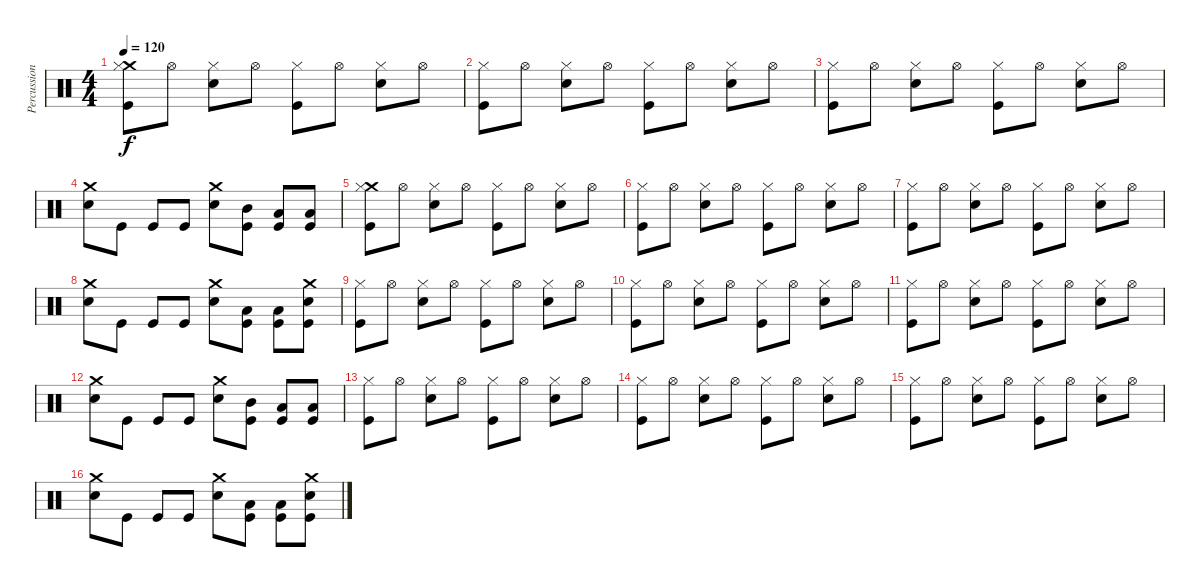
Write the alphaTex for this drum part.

\track ("Percussion" "Percussion") {instrument percussion}
\staff {score}
\articulation defaults
\ts (4 4)
\tempo 120
\clef neutral
\ks c
("Crash medium (hit)" "Hi-Hat (closed)" "Kick (hit)").8{dy f} "Hi-Hat (open)".8 ("Snare (hit) 2" "Hi-Hat (closed)").8 "Hi-Hat (open)".8 ("Hi-Hat (closed)" "Kick (hit)").8 "Hi-Hat (open)".8 ("Snare (hit) 2" "Hi-Hat (closed)").8 "Hi-Hat (open)".8 |
("Hi-Hat (closed)" "Kick (hit)").8 "Hi-Hat (open)".8 ("Snare (hit) 2" "Hi-Hat (closed)").8 "Hi-Hat (open)".8 ("Hi-Hat (closed)" "Kick (hit)").8 "Hi-Hat (open)".8 ("Snare (hit) 2" "Hi-Hat (closed)").8 "Hi-Hat (open)".8 |
("Hi-Hat (closed)" "Kick (hit)").8 "Hi-Hat (open)".8 ("Snare (hit) 2" "Hi-Hat (closed)").8 "Hi-Hat (open)".8 ("Hi-Hat (closed)" "Kick (hit)").8 "Hi-Hat (open)".8 ("Snare (hit) 2" "Hi-Hat (closed)").8 "Hi-Hat (open)".8 |
("Crash medium (hit)" "Snare (hit) 2").8 "Kick (hit)".8 "Kick (hit)".8 "Kick (hit)".8 ("Crash medium (hit)" "Snare (hit) 2").8 ("Mid Tom (hit)" "Kick (hit)").8 ("Low Tom (hit)" "Kick (hit)").8 ("Low Tom (hit)" "Kick (hit)").8 |
("Crash medium (hit)" "Hi-Hat (closed)" "Kick (hit)").8 "Hi-Hat (open)".8 ("Snare (hit) 2" "Hi-Hat (closed)").8 "Hi-Hat (open)".8 ("Hi-Hat (closed)" "Kick (hit)").8 "Hi-Hat (open)".8 ("Snare (hit) 2" "Hi-Hat (closed)").8 "Hi-Hat (open)".8 |
("Hi-Hat (closed)" "Kick (hit)").8 "Hi-Hat (open)".8 ("Snare (hit) 2" "Hi-Hat (closed)").8 "Hi-Hat (open)".8 ("Hi-Hat (closed)" "Kick (hit)").8 "Hi-Hat (open)".8 ("Snare (hit) 2" "Hi-Hat (closed)").8 "Hi-Hat (open)".8 |
("Hi-Hat (closed)" "Kick (hit)").8 "Hi-Hat (open)".8 ("Snare (hit) 2" "Hi-Hat (closed)").8 "Hi-Hat (open)".8 ("Hi-Hat (closed)" "Kick (hit)").8 "Hi-Hat (open)".8 ("Snare (hit) 2" "Hi-Hat (closed)").8 "Hi-Hat (open)".8 |
("Crash medium (hit)" "Snare (hit) 2").8 "Kick (hit)".8 "Kick (hit)".8 "Kick (hit)".8 ("Crash medium (hit)" "Snare (hit) 2").8 ("Low Tom (hit)" "Kick (hit)").8 ("Low Tom (hit)" "Kick (hit)").8 ("Crash medium (hit)" "Snare (hit) 2" "Kick (hit)").8 |
("Hi-Hat (closed)" "Kick (hit)").8 "Hi-Hat (open)".8 ("Snare (hit) 2" "Hi-Hat (closed)").8 "Hi-Hat (open)".8 ("Hi-Hat (closed)" "Kick (hit)").8 "Hi-Hat (open)".8 ("Snare (hit) 2" "Hi-Hat (closed)").8 "Hi-Hat (open)".8 |
("Hi-Hat (closed)" "Kick (hit)").8 "Hi-Hat (open)".8 ("Snare (hit) 2" "Hi-Hat (closed)").8 "Hi-Hat (open)".8 ("Hi-Hat (closed)" "Kick (hit)").8 "Hi-Hat (open)".8 ("Snare (hit) 2" "Hi-Hat (closed)").8 "Hi-Hat (open)".8 |
("Hi-Hat (closed)" "Kick (hit)").8 "Hi-Hat (open)".8 ("Snare (hit) 2" "Hi-Hat (closed)").8 "Hi-Hat (open)".8 ("Hi-Hat (closed)" "Kick (hit)").8 "Hi-Hat (open)".8 ("Snare (hit) 2" "Hi-Hat (closed)").8 "Hi-Hat (open)".8 |
("Crash medium (hit)" "Snare (hit) 2").8 "Kick (hit)".8 "Kick (hit)".8 "Kick (hit)".8 ("Crash medium (hit)" "Snare (hit) 2").8 ("Mid Tom (hit)" "Kick (hit)").8 ("Low Tom (hit)" "Kick (hit)").8 ("Low Tom (hit)" "Kick (hit)").8 |
("Hi-Hat (closed)" "Kick (hit)").8 "Hi-Hat (open)".8 ("Snare (hit) 2" "Hi-Hat (closed)").8 "Hi-Hat (open)".8 ("Hi-Hat (closed)" "Kick (hit)").8 "Hi-Hat (open)".8 ("Snare (hit) 2" "Hi-Hat (closed)").8 "Hi-Hat (open)".8 |
("Hi-Hat (closed)" "Kick (hit)").8 "Hi-Hat (open)".8 ("Snare (hit) 2" "Hi-Hat (closed)").8 "Hi-Hat (open)".8 ("Hi-Hat (closed)" "Kick (hit)").8 "Hi-Hat (open)".8 ("Snare (hit) 2" "Hi-Hat (closed)").8 "Hi-Hat (open)".8 |
("Hi-Hat (closed)" "Kick (hit)").8 "Hi-Hat (open)".8 ("Snare (hit) 2" "Hi-Hat (closed)").8 "Hi-Hat (open)".8 ("Hi-Hat (closed)" "Kick (hit)").8 "Hi-Hat (open)".8 ("Snare (hit) 2" "Hi-Hat (closed)").8 "Hi-Hat (open)".8 |
("Crash medium (hit)" "Snare (hit) 2").8 "Kick (hit)".8 "Kick (hit)".8 "Kick (hit)".8 ("Crash medium (hit)" "Snare (hit) 2").8 ("Low Tom (hit)" "Kick (hit)").8 ("Low Tom (hit)" "Kick (hit)").8 ("Crash medium (hit)" "Snare (hit) 2" "Kick (hit)").8
